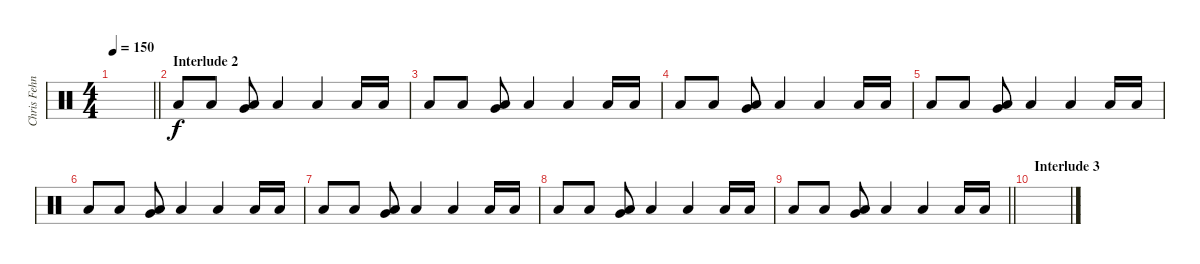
\track ("Chris Fehn" "Chris Fehn") {instrument percussion}
\staff {score}
\articulation defaults
\ts (4 4)
\tempo 150
\clef neutral
\barLineRight lightlight
\ks c
|
\section ("" "Interlude 2")
"Low Floor Tom (hit)".8 "Low Floor Tom (hit)".8 ("Very Low Tom (hit)" "Low Floor Tom (hit)").8 "Low Floor Tom (hit)".4 "Low Floor Tom (hit)".4 "Low Floor Tom (hit)".16 "Low Floor Tom (hit)".16 |
"Low Floor Tom (hit)".8 "Low Floor Tom (hit)".8 ("Very Low Tom (hit)" "Low Floor Tom (hit)").8 "Low Floor Tom (hit)".4 "Low Floor Tom (hit)".4 "Low Floor Tom (hit)".16 "Low Floor Tom (hit)".16 |
"Low Floor Tom (hit)".8 "Low Floor Tom (hit)".8 ("Very Low Tom (hit)" "Low Floor Tom (hit)").8 "Low Floor Tom (hit)".4 "Low Floor Tom (hit)".4 "Low Floor Tom (hit)".16 "Low Floor Tom (hit)".16 |
"Low Floor Tom (hit)".8 "Low Floor Tom (hit)".8 ("Very Low Tom (hit)" "Low Floor Tom (hit)").8 "Low Floor Tom (hit)".4 "Low Floor Tom (hit)".4 "Low Floor Tom (hit)".16 "Low Floor Tom (hit)".16 |
"Low Floor Tom (hit)".8 "Low Floor Tom (hit)".8 ("Very Low Tom (hit)" "Low Floor Tom (hit)").8 "Low Floor Tom (hit)".4 "Low Floor Tom (hit)".4 "Low Floor Tom (hit)".16 "Low Floor Tom (hit)".16 |
"Low Floor Tom (hit)".8 "Low Floor Tom (hit)".8 ("Very Low Tom (hit)" "Low Floor Tom (hit)").8 "Low Floor Tom (hit)".4 "Low Floor Tom (hit)".4 "Low Floor Tom (hit)".16 "Low Floor Tom (hit)".16 |
"Low Floor Tom (hit)".8 "Low Floor Tom (hit)".8 ("Very Low Tom (hit)" "Low Floor Tom (hit)").8 "Low Floor Tom (hit)".4 "Low Floor Tom (hit)".4 "Low Floor Tom (hit)".16 "Low Floor Tom (hit)".16 |
\barLineRight lightlight "Low Floor Tom (hit)".8 "Low Floor Tom (hit)".8
("Very Low Tom (hit)" "Low Floor Tom (hit)").8 "Low Floor Tom (hit)".4 "Low Floor Tom (hit)".4 "Low Floor Tom (hit)".16 "Low Floor Tom (hit)".16 |
\section ("" "Interlude 3")
